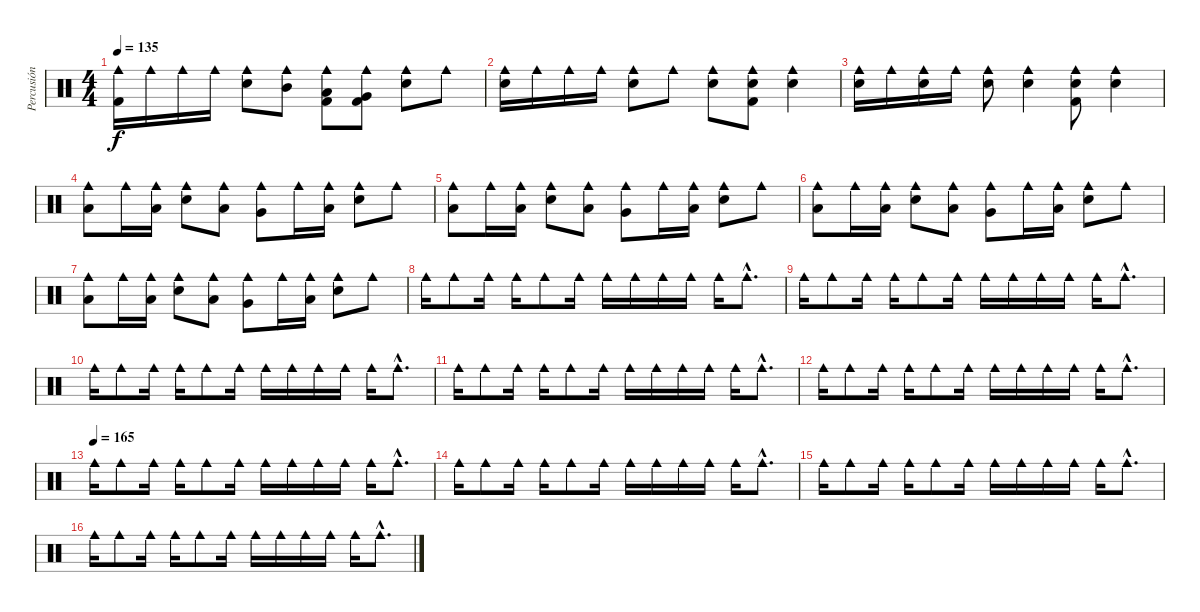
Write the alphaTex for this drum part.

\track ("Percusión" "Percusión") {instrument percussion}
\staff {score}
\articulation defaults
\ts (4 4)
\tempo 135
\clef neutral
\ks c
("Cowbell medium (hit)" "Kick (hit) 2").16{dy f} "Cowbell medium (hit)".16 "Cowbell medium (hit)".16 "Cowbell medium (hit)".16 ("Cowbell medium (hit)" "Electric Snare (hit)").8 ("Cowbell medium (hit)" "Mid Tom (hit)").8 ("Cowbell medium (hit)" "Low Tom (hit)" "Kick (hit) 2").8 ("Cowbell medium (hit)" "Very Low Tom (hit)" "Kick (hit) 2").8 ("Cowbell medium (hit)" "Electric Snare (hit)").8 "Cowbell medium (hit)".8 |
("Cowbell medium (hit)" "Electric Snare (hit)").16 "Cowbell medium (hit)".16 "Cowbell medium (hit)".16 "Cowbell medium (hit)".16 ("Cowbell medium (hit)" "Electric Snare (hit)").8 "Cowbell medium (hit)".8 ("Cowbell medium (hit)" "Electric Snare (hit)").8 ("Cowbell medium (hit)" "Electric Snare (hit)" "Kick (hit) 2").8 ("Cowbell medium (hit)" "Electric Snare (hit)").4 |
("Cowbell medium (hit)" "Electric Snare (hit)").16 "Cowbell medium (hit)".16 ("Cowbell medium (hit)" "Electric Snare (hit)").16 "Cowbell medium (hit)".16 ("Cowbell medium (hit)" "Electric Snare (hit)").8 ("Cowbell medium (hit)" "Electric Snare (hit)").4 ("Cowbell medium (hit)" "Electric Snare (hit)" "Kick (hit) 2").8 ("Cowbell medium (hit)" "Electric Snare (hit)").4 |
("Cowbell medium (hit)" "Low Tom (hit)").8 "Cowbell medium (hit)".16 ("Cowbell medium (hit)" "Low Tom (hit)").16 ("Cowbell medium (hit)" "Electric Snare (hit)").8 ("Cowbell medium (hit)" "Low Tom (hit)").8 ("Cowbell medium (hit)" "Very Low Tom (hit)").8 "Cowbell medium (hit)".16 ("Cowbell medium (hit)" "Low Tom (hit)").16 ("Cowbell medium (hit)" "Electric Snare (hit)").8 "Cowbell medium (hit)".8 |
("Cowbell medium (hit)" "Low Tom (hit)").8 "Cowbell medium (hit)".16 ("Cowbell medium (hit)" "Low Tom (hit)").16 ("Cowbell medium (hit)" "Electric Snare (hit)").8 ("Cowbell medium (hit)" "Low Tom (hit)").8 ("Cowbell medium (hit)" "Very Low Tom (hit)").8 "Cowbell medium (hit)".16 ("Cowbell medium (hit)" "Low Tom (hit)").16 ("Cowbell medium (hit)" "Electric Snare (hit)").8 "Cowbell medium (hit)".8 |
("Cowbell medium (hit)" "Low Tom (hit)").8 "Cowbell medium (hit)".16 ("Cowbell medium (hit)" "Low Tom (hit)").16 ("Cowbell medium (hit)" "Electric Snare (hit)").8 ("Cowbell medium (hit)" "Low Tom (hit)").8 ("Cowbell medium (hit)" "Very Low Tom (hit)").8 "Cowbell medium (hit)".16 ("Cowbell medium (hit)" "Low Tom (hit)").16 ("Cowbell medium (hit)" "Electric Snare (hit)").8 "Cowbell medium (hit)".8 |
("Cowbell medium (hit)" "Low Tom (hit)").8 "Cowbell medium (hit)".16 ("Cowbell medium (hit)" "Low Tom (hit)").16 ("Cowbell medium (hit)" "Electric Snare (hit)").8 ("Cowbell medium (hit)" "Low Tom (hit)").8 ("Cowbell medium (hit)" "Very Low Tom (hit)").8 "Cowbell medium (hit)".16 ("Cowbell medium (hit)" "Low Tom (hit)").16 ("Cowbell medium (hit)" "Electric Snare (hit)").8 "Cowbell medium (hit)".8 |
"Cowbell medium (hit)".16 "Cowbell medium (hit)".8 "Cowbell medium (hit)".16 "Cowbell medium (hit)".16 "Cowbell medium (hit)".8 "Cowbell medium (hit)".16 "Cowbell medium (hit)".16 "Cowbell medium (hit)".16 "Cowbell medium (hit)".16 "Cowbell medium (hit)".16 "Cowbell medium (hit)".16 "Cowbell medium (hit)"{hac}.8{d} |
"Cowbell medium (hit)".16 "Cowbell medium (hit)".8 "Cowbell medium (hit)".16 "Cowbell medium (hit)".16 "Cowbell medium (hit)".8 "Cowbell medium (hit)".16 "Cowbell medium (hit)".16 "Cowbell medium (hit)".16 "Cowbell medium (hit)".16 "Cowbell medium (hit)".16 "Cowbell medium (hit)".16 "Cowbell medium (hit)"{hac}.8{d} |
"Cowbell medium (hit)".16 "Cowbell medium (hit)".8 "Cowbell medium (hit)".16 "Cowbell medium (hit)".16 "Cowbell medium (hit)".8 "Cowbell medium (hit)".16 "Cowbell medium (hit)".16 "Cowbell medium (hit)".16 "Cowbell medium (hit)".16 "Cowbell medium (hit)".16 "Cowbell medium (hit)".16 "Cowbell medium (hit)"{hac}.8{d} |
"Cowbell medium (hit)".16 "Cowbell medium (hit)".8 "Cowbell medium (hit)".16 "Cowbell medium (hit)".16 "Cowbell medium (hit)".8 "Cowbell medium (hit)".16 "Cowbell medium (hit)".16 "Cowbell medium (hit)".16 "Cowbell medium (hit)".16 "Cowbell medium (hit)".16 "Cowbell medium (hit)".16 "Cowbell medium (hit)"{hac}.8{d} |
"Cowbell medium (hit)".16 "Cowbell medium (hit)".8 "Cowbell medium (hit)".16 "Cowbell medium (hit)".16 "Cowbell medium (hit)".8 "Cowbell medium (hit)".16 "Cowbell medium (hit)".16 "Cowbell medium (hit)".16 "Cowbell medium (hit)".16 "Cowbell medium (hit)".16 "Cowbell medium (hit)".16 "Cowbell medium (hit)"{hac}.8{d} |
\tempo (165)
"Cowbell medium (hit)".16{volume 0} "Cowbell medium (hit)".8 "Cowbell medium (hit)".16 "Cowbell medium (hit)".16 "Cowbell medium (hit)".8 "Cowbell medium (hit)".16 "Cowbell medium (hit)".16 "Cowbell medium (hit)".16 "Cowbell medium (hit)".16 "Cowbell medium (hit)".16 "Cowbell medium (hit)".16 "Cowbell medium (hit)"{hac}.8{d} |
"Cowbell medium (hit)".16 "Cowbell medium (hit)".8 "Cowbell medium (hit)".16 "Cowbell medium (hit)".16 "Cowbell medium (hit)".8 "Cowbell medium (hit)".16 "Cowbell medium (hit)".16 "Cowbell medium (hit)".16 "Cowbell medium (hit)".16 "Cowbell medium (hit)".16 "Cowbell medium (hit)".16 "Cowbell medium (hit)"{hac}.8{d} |
"Cowbell medium (hit)".16 "Cowbell medium (hit)".8 "Cowbell medium (hit)".16 "Cowbell medium (hit)".16 "Cowbell medium (hit)".8 "Cowbell medium (hit)".16 "Cowbell medium (hit)".16 "Cowbell medium (hit)".16 "Cowbell medium (hit)".16 "Cowbell medium (hit)".16 "Cowbell medium (hit)".16 "Cowbell medium (hit)"{hac}.8{d} |
"Cowbell medium (hit)".16 "Cowbell medium (hit)".8 "Cowbell medium (hit)".16 "Cowbell medium (hit)".16 "Cowbell medium (hit)".8 "Cowbell medium (hit)".16 "Cowbell medium (hit)".16 "Cowbell medium (hit)".16 "Cowbell medium (hit)".16 "Cowbell medium (hit)".16 "Cowbell medium (hit)".16 "Cowbell medium (hit)"{hac}.8{d}
